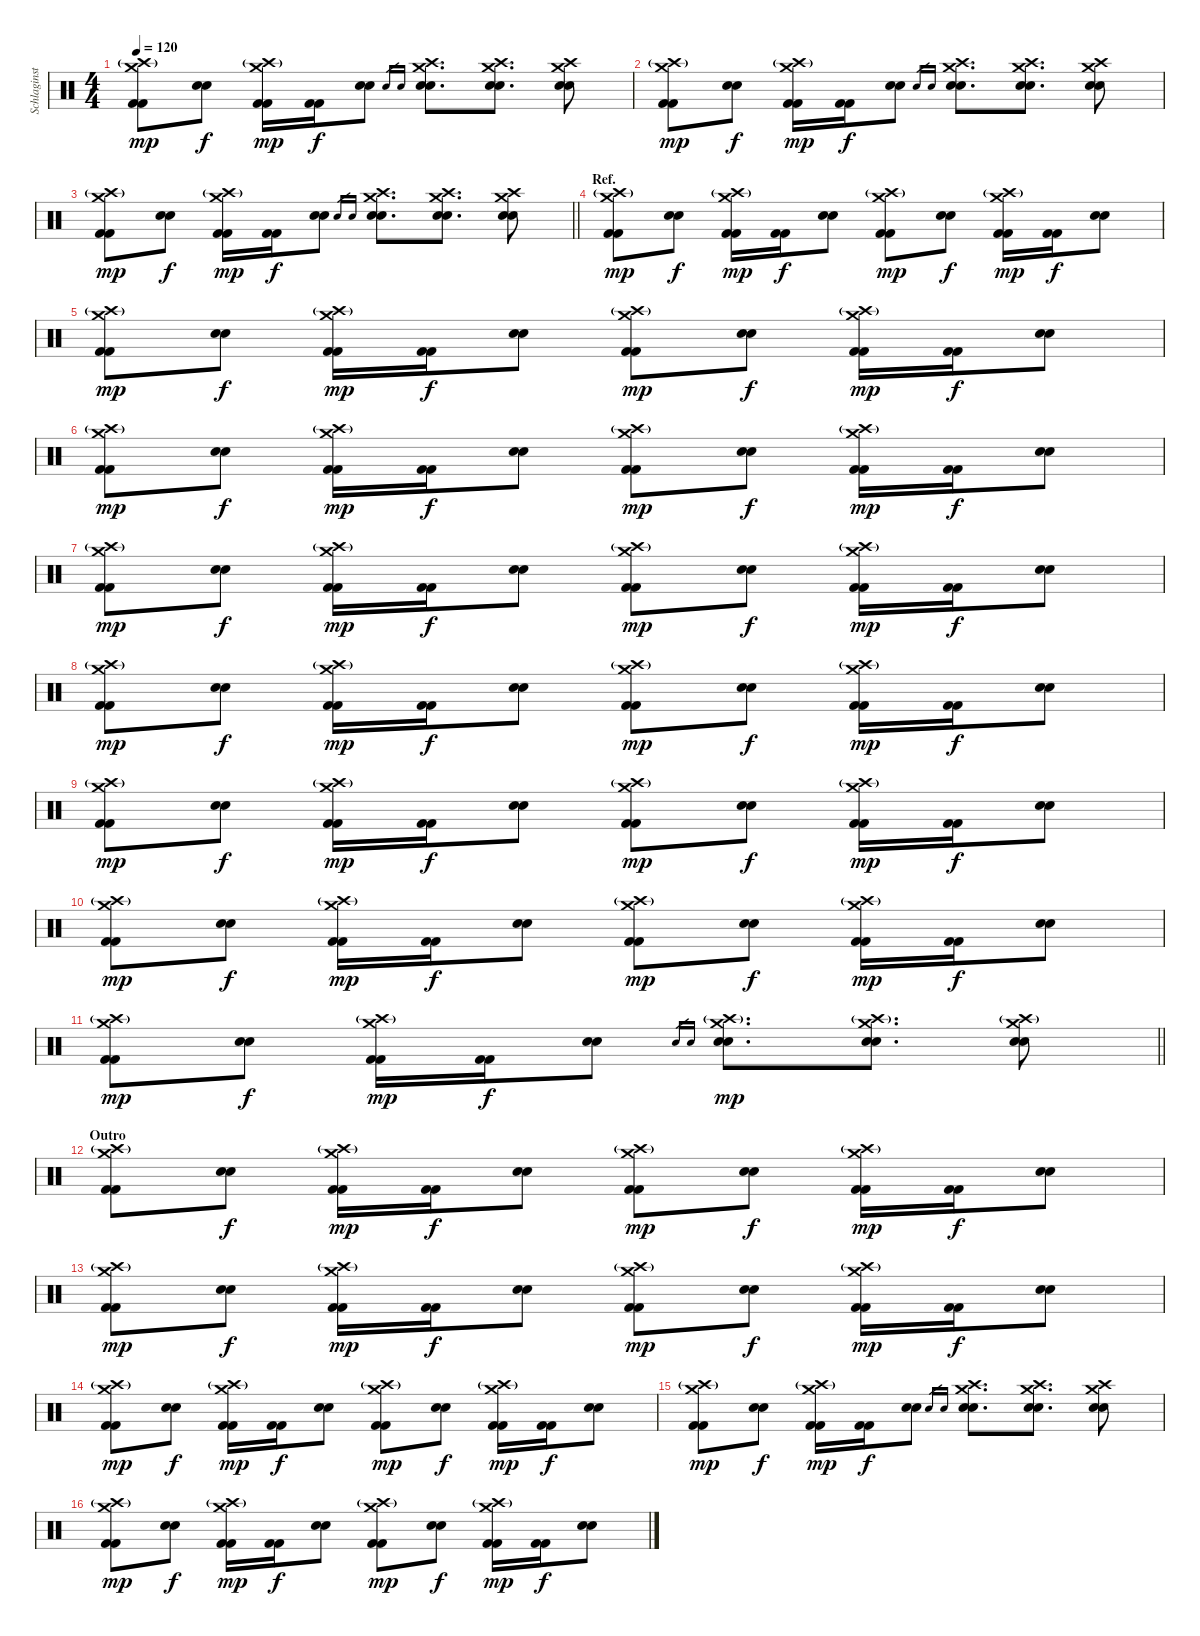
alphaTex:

\track ("Schlaginstrumente - Auswahl" "Schlaginst") {instrument percussion}
\staff {score}
\articulation defaults
\ts (4 4)
\tempo 120
\clef neutral
\ks c
("Crash high (hit)"{g} "Crash medium (hit)" "Kick (hit) 2" "Kick (hit) 2").8{dy mp} ("Electric Snare (hit)" "Electric Snare (hit)").8{dy f} ("Crash high (hit)"{g} "Crash medium (hit)" "Kick (hit) 2" "Kick (hit) 2").16{dy mp} ("Kick (hit) 2" "Kick (hit) 2").16{dy f} ("Electric Snare (hit)" "Electric Snare (hit)").8 "Electric Snare (hit)".16{gr} "Electric Snare (hit)".16{gr} ("Crash high (hit)" "Crash medium (hit)" "Electric Snare (hit)" "Electric Snare (hit)").8{d} ("Crash high (hit)" "Crash medium (hit)" "Electric Snare (hit)" "Electric Snare (hit)").8{d} ("Crash high (hit)" "Crash medium (hit)" "Electric Snare (hit)" "Electric Snare (hit)").8 |
("Crash high (hit)"{g} "Crash medium (hit)" "Kick (hit) 2" "Kick (hit) 2").8{dy mp} ("Electric Snare (hit)" "Electric Snare (hit)").8{dy f} ("Crash high (hit)"{g} "Crash medium (hit)" "Kick (hit) 2" "Kick (hit) 2").16{dy mp} ("Kick (hit) 2" "Kick (hit) 2").16{dy f} ("Electric Snare (hit)" "Electric Snare (hit)").8 "Electric Snare (hit)".16{gr} "Electric Snare (hit)".16{gr} ("Crash high (hit)" "Crash medium (hit)" "Electric Snare (hit)" "Electric Snare (hit)").8{d} ("Crash high (hit)" "Crash medium (hit)" "Electric Snare (hit)" "Electric Snare (hit)").8{d} ("Crash high (hit)" "Crash medium (hit)" "Electric Snare (hit)" "Electric Snare (hit)").8 |
\barLineRight lightlight
("Crash high (hit)"{g} "Crash medium (hit)" "Kick (hit) 2" "Kick (hit) 2").8{dy mp} ("Electric Snare (hit)" "Electric Snare (hit)").8{dy f} ("Crash high (hit)"{g} "Crash medium (hit)" "Kick (hit) 2" "Kick (hit) 2").16{dy mp} ("Kick (hit) 2" "Kick (hit) 2").16{dy f} ("Electric Snare (hit)" "Electric Snare (hit)").8 "Electric Snare (hit)".16{gr} "Electric Snare (hit)".16{gr} ("Crash high (hit)" "Crash medium (hit)" "Electric Snare (hit)" "Electric Snare (hit)").8{d} ("Crash high (hit)" "Crash medium (hit)" "Electric Snare (hit)" "Electric Snare (hit)").8{d} ("Crash high (hit)" "Crash medium (hit)" "Electric Snare (hit)" "Electric Snare (hit)").8 |
\section ("" "Ref.")
("Crash high (hit)"{g} "Crash medium (hit)" "Kick (hit) 2" "Kick (hit) 2").8{dy mp} ("Electric Snare (hit)" "Electric Snare (hit)").8{dy f} ("Crash high (hit)"{g} "Crash medium (hit)" "Kick (hit) 2" "Kick (hit) 2").16{dy mp} ("Kick (hit) 2" "Kick (hit) 2").16{dy f} ("Electric Snare (hit)" "Electric Snare (hit)").8 ("Crash high (hit)"{g} "Crash medium (hit)" "Kick (hit) 2" "Kick (hit) 2").8{dy mp} ("Electric Snare (hit)" "Electric Snare (hit)").8{dy f} ("Crash high (hit)"{g} "Crash medium (hit)" "Kick (hit) 2" "Kick (hit) 2").16{dy mp} ("Kick (hit) 2" "Kick (hit) 2").16{dy f} ("Electric Snare (hit)" "Electric Snare (hit)").8 |
("Crash high (hit)"{g} "Crash medium (hit)" "Kick (hit) 2" "Kick (hit) 2").8{dy mp} ("Electric Snare (hit)" "Electric Snare (hit)").8{dy f} ("Crash high (hit)"{g} "Crash medium (hit)" "Kick (hit) 2" "Kick (hit) 2").16{dy mp} ("Kick (hit) 2" "Kick (hit) 2").16{dy f} ("Electric Snare (hit)" "Electric Snare (hit)").8 ("Crash high (hit)"{g} "Crash medium (hit)" "Kick (hit) 2" "Kick (hit) 2").8{dy mp} ("Electric Snare (hit)" "Electric Snare (hit)").8{dy f} ("Crash high (hit)"{g} "Crash medium (hit)" "Kick (hit) 2" "Kick (hit) 2").16{dy mp} ("Kick (hit) 2" "Kick (hit) 2").16{dy f} ("Electric Snare (hit)" "Electric Snare (hit)").8 |
("Crash high (hit)"{g} "Crash medium (hit)" "Kick (hit) 2" "Kick (hit) 2").8{dy mp} ("Electric Snare (hit)" "Electric Snare (hit)").8{dy f} ("Crash high (hit)"{g} "Crash medium (hit)" "Kick (hit) 2" "Kick (hit) 2").16{dy mp} ("Kick (hit) 2" "Kick (hit) 2").16{dy f} ("Electric Snare (hit)" "Electric Snare (hit)").8 ("Crash high (hit)"{g} "Crash medium (hit)" "Kick (hit) 2" "Kick (hit) 2").8{dy mp} ("Electric Snare (hit)" "Electric Snare (hit)").8{dy f} ("Crash high (hit)"{g} "Crash medium (hit)" "Kick (hit) 2" "Kick (hit) 2").16{dy mp} ("Kick (hit) 2" "Kick (hit) 2").16{dy f} ("Electric Snare (hit)" "Electric Snare (hit)").8 |
("Crash high (hit)"{g} "Crash medium (hit)" "Kick (hit) 2" "Kick (hit) 2").8{dy mp} ("Electric Snare (hit)" "Electric Snare (hit)").8{dy f} ("Crash high (hit)"{g} "Crash medium (hit)" "Kick (hit) 2" "Kick (hit) 2").16{dy mp} ("Kick (hit) 2" "Kick (hit) 2").16{dy f} ("Electric Snare (hit)" "Electric Snare (hit)").8 ("Crash high (hit)"{g} "Crash medium (hit)" "Kick (hit) 2" "Kick (hit) 2").8{dy mp} ("Electric Snare (hit)" "Electric Snare (hit)").8{dy f} ("Crash high (hit)"{g} "Crash medium (hit)" "Kick (hit) 2" "Kick (hit) 2").16{dy mp} ("Kick (hit) 2" "Kick (hit) 2").16{dy f} ("Electric Snare (hit)" "Electric Snare (hit)").8 |
("Crash high (hit)"{g} "Crash medium (hit)" "Kick (hit) 2" "Kick (hit) 2").8{dy mp} ("Electric Snare (hit)" "Electric Snare (hit)").8{dy f} ("Crash high (hit)"{g} "Crash medium (hit)" "Kick (hit) 2" "Kick (hit) 2").16{dy mp} ("Kick (hit) 2" "Kick (hit) 2").16{dy f} ("Electric Snare (hit)" "Electric Snare (hit)").8 ("Crash high (hit)"{g} "Crash medium (hit)" "Kick (hit) 2" "Kick (hit) 2").8{dy mp} ("Electric Snare (hit)" "Electric Snare (hit)").8{dy f} ("Crash high (hit)"{g} "Crash medium (hit)" "Kick (hit) 2" "Kick (hit) 2").16{dy mp} ("Kick (hit) 2" "Kick (hit) 2").16{dy f} ("Electric Snare (hit)" "Electric Snare (hit)").8 |
("Crash high (hit)"{g} "Crash medium (hit)" "Kick (hit) 2" "Kick (hit) 2").8{dy mp} ("Electric Snare (hit)" "Electric Snare (hit)").8{dy f} ("Crash high (hit)"{g} "Crash medium (hit)" "Kick (hit) 2" "Kick (hit) 2").16{dy mp} ("Kick (hit) 2" "Kick (hit) 2").16{dy f} ("Electric Snare (hit)" "Electric Snare (hit)").8 ("Crash high (hit)"{g} "Crash medium (hit)" "Kick (hit) 2" "Kick (hit) 2").8{dy mp} ("Electric Snare (hit)" "Electric Snare (hit)").8{dy f} ("Crash high (hit)"{g} "Crash medium (hit)" "Kick (hit) 2" "Kick (hit) 2").16{dy mp} ("Kick (hit) 2" "Kick (hit) 2").16{dy f} ("Electric Snare (hit)" "Electric Snare (hit)").8 |
("Crash high (hit)"{g} "Crash medium (hit)" "Kick (hit) 2" "Kick (hit) 2").8{dy mp} ("Electric Snare (hit)" "Electric Snare (hit)").8{dy f} ("Crash high (hit)"{g} "Crash medium (hit)" "Kick (hit) 2" "Kick (hit) 2").16{dy mp} ("Kick (hit) 2" "Kick (hit) 2").16{dy f} ("Electric Snare (hit)" "Electric Snare (hit)").8 ("Crash high (hit)"{g} "Crash medium (hit)" "Kick (hit) 2" "Kick (hit) 2").8{dy mp} ("Electric Snare (hit)" "Electric Snare (hit)").8{dy f} ("Crash high (hit)"{g} "Crash medium (hit)" "Kick (hit) 2" "Kick (hit) 2").16{dy mp} ("Kick (hit) 2" "Kick (hit) 2").16{dy f} ("Electric Snare (hit)" "Electric Snare (hit)").8 |
\barLineRight lightlight
("Crash high (hit)"{g} "Crash medium (hit)" "Kick (hit) 2" "Kick (hit) 2").8{dy mp} ("Electric Snare (hit)" "Electric Snare (hit)").8{dy f} ("Crash high (hit)"{g} "Crash medium (hit)" "Kick (hit) 2" "Kick (hit) 2").16{dy mp} ("Kick (hit) 2" "Kick (hit) 2").16{dy f} ("Electric Snare (hit)" "Electric Snare (hit)").8 "Electric Snare (hit)".16{gr} "Electric Snare (hit)".16{gr} ("Crash high (hit)"{g} "Crash medium (hit)" "Electric Snare (hit)" "Electric Snare (hit)").8{d dy mp} ("Crash high (hit)"{g} "Crash medium (hit)" "Electric Snare (hit)" "Electric Snare (hit)").8{d} ("Crash high (hit)"{g} "Crash medium (hit)" "Electric Snare (hit)" "Electric Snare (hit)").8 |
\section ("" "Outro")
("Crash high (hit)"{g} "Crash medium (hit)" "Kick (hit) 2" "Kick (hit) 2").8 ("Electric Snare (hit)" "Electric Snare (hit)").8{dy f} ("Crash high (hit)"{g} "Crash medium (hit)" "Kick (hit) 2" "Kick (hit) 2").16{dy mp} ("Kick (hit) 2" "Kick (hit) 2").16{dy f} ("Electric Snare (hit)" "Electric Snare (hit)").8 ("Crash high (hit)"{g} "Crash medium (hit)" "Kick (hit) 2" "Kick (hit) 2").8{dy mp} ("Electric Snare (hit)" "Electric Snare (hit)").8{dy f} ("Crash high (hit)"{g} "Crash medium (hit)" "Kick (hit) 2" "Kick (hit) 2").16{dy mp} ("Kick (hit) 2" "Kick (hit) 2").16{dy f} ("Electric Snare (hit)" "Electric Snare (hit)").8 |
("Crash high (hit)"{g} "Crash medium (hit)" "Kick (hit) 2" "Kick (hit) 2").8{dy mp} ("Electric Snare (hit)" "Electric Snare (hit)").8{dy f} ("Crash high (hit)"{g} "Crash medium (hit)" "Kick (hit) 2" "Kick (hit) 2").16{dy mp} ("Kick (hit) 2" "Kick (hit) 2").16{dy f} ("Electric Snare (hit)" "Electric Snare (hit)").8 ("Crash high (hit)"{g} "Crash medium (hit)" "Kick (hit) 2" "Kick (hit) 2").8{dy mp} ("Electric Snare (hit)" "Electric Snare (hit)").8{dy f} ("Crash high (hit)"{g} "Crash medium (hit)" "Kick (hit) 2" "Kick (hit) 2").16{dy mp} ("Kick (hit) 2" "Kick (hit) 2").16{dy f} ("Electric Snare (hit)" "Electric Snare (hit)").8 |
("Crash high (hit)"{g} "Crash medium (hit)" "Kick (hit) 2" "Kick (hit) 2").8{dy mp} ("Electric Snare (hit)" "Electric Snare (hit)").8{dy f} ("Crash high (hit)"{g} "Crash medium (hit)" "Kick (hit) 2" "Kick (hit) 2").16{dy mp} ("Kick (hit) 2" "Kick (hit) 2").16{dy f} ("Electric Snare (hit)" "Electric Snare (hit)").8 ("Crash high (hit)"{g} "Crash medium (hit)" "Kick (hit) 2" "Kick (hit) 2").8{dy mp} ("Electric Snare (hit)" "Electric Snare (hit)").8{dy f} ("Crash high (hit)"{g} "Crash medium (hit)" "Kick (hit) 2" "Kick (hit) 2").16{dy mp} ("Kick (hit) 2" "Kick (hit) 2").16{dy f} ("Electric Snare (hit)" "Electric Snare (hit)").8 |
("Crash high (hit)"{g} "Crash medium (hit)" "Kick (hit) 2" "Kick (hit) 2").8{dy mp} ("Electric Snare (hit)" "Electric Snare (hit)").8{dy f} ("Crash high (hit)"{g} "Crash medium (hit)" "Kick (hit) 2" "Kick (hit) 2").16{dy mp} ("Kick (hit) 2" "Kick (hit) 2").16{dy f} ("Electric Snare (hit)" "Electric Snare (hit)").8 "Electric Snare (hit)".16{gr} "Electric Snare (hit)".16{gr} ("Crash high (hit)" "Crash medium (hit)" "Electric Snare (hit)" "Electric Snare (hit)").8{d} ("Crash high (hit)" "Crash medium (hit)" "Electric Snare (hit)" "Electric Snare (hit)").8{d} ("Crash high (hit)" "Crash medium (hit)" "Electric Snare (hit)" "Electric Snare (hit)").8 |
("Crash high (hit)"{g} "Crash medium (hit)" "Kick (hit) 2" "Kick (hit) 2").8{dy mp} ("Electric Snare (hit)" "Electric Snare (hit)").8{dy f} ("Crash high (hit)"{g} "Crash medium (hit)" "Kick (hit) 2" "Kick (hit) 2").16{dy mp} ("Kick (hit) 2" "Kick (hit) 2").16{dy f} ("Electric Snare (hit)" "Electric Snare (hit)").8 ("Crash high (hit)"{g} "Crash medium (hit)" "Kick (hit) 2" "Kick (hit) 2").8{dy mp} ("Electric Snare (hit)" "Electric Snare (hit)").8{dy f} ("Crash high (hit)"{g} "Crash medium (hit)" "Kick (hit) 2" "Kick (hit) 2").16{dy mp} ("Kick (hit) 2" "Kick (hit) 2").16{dy f} ("Electric Snare (hit)" "Electric Snare (hit)").8
